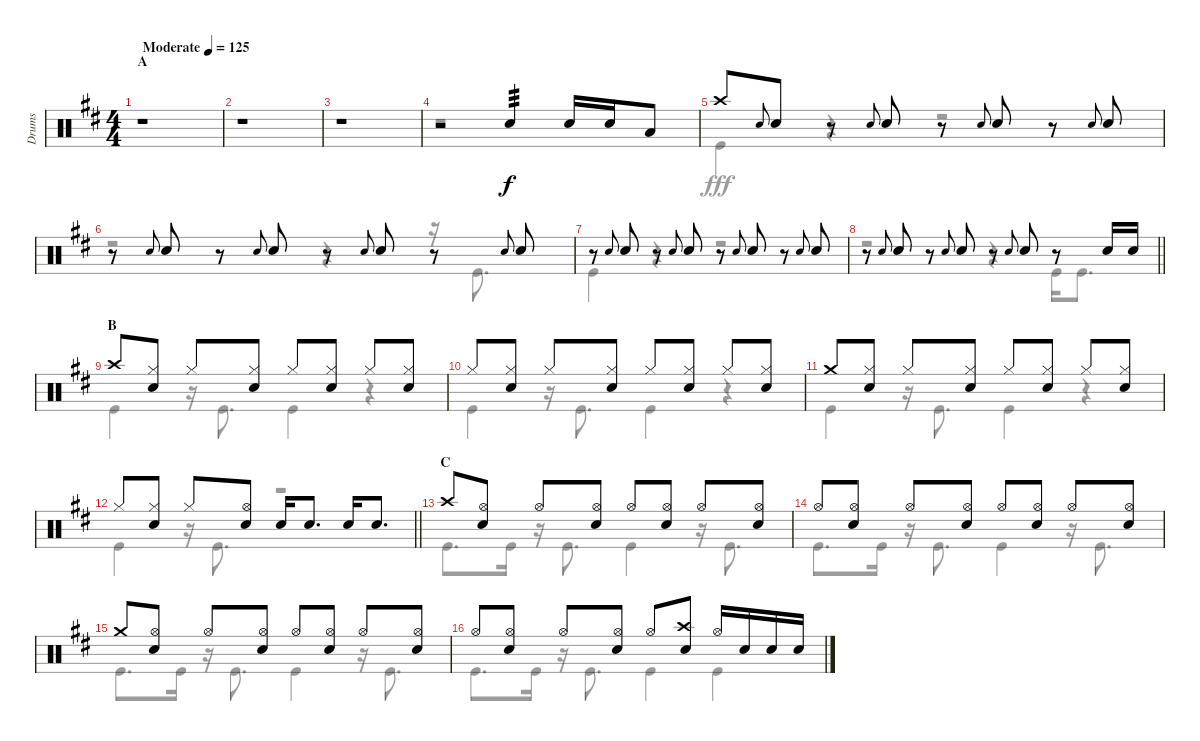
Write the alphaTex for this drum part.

\track ("Drums" "Drums") {instrument percussion}
\staff {score}
\articulation defaults
\voice
\ts (4 4)
\section ("" "A")
\tempo (125 "Moderate")
\clef neutral
\ks d
r.1{dy f} |
r.1 |
r.1 |
r.2 "Snare (hit) 2".4{tp 3} "Snare (hit) 2".16 "Snare (hit) 2".16 "Low Tom (hit)".8 |
"Crash high (hit)".8 "Snare (hit) 2".8{gr onbeat} "Snare (hit) 2".8 r.8 "Snare (hit) 2".8{gr onbeat} "Snare (hit) 2".8 r.8 "Snare (hit) 2".8{gr onbeat} "Snare (hit) 2".8 r.8 "Snare (hit) 2".8{gr onbeat} "Snare (hit) 2".8 |
r.8 "Snare (hit) 2".8{gr onbeat} "Snare (hit) 2".8 r.8 "Snare (hit) 2".8{gr onbeat} "Snare (hit) 2".8 r.8 "Snare (hit) 2".8{gr onbeat} "Snare (hit) 2".8 r.8 "Snare (hit) 2".8{gr onbeat} "Snare (hit) 2".8 |
r.8 "Snare (hit) 2".8{gr onbeat} "Snare (hit) 2".8 r.8 "Snare (hit) 2".8{gr onbeat} "Snare (hit) 2".8 r.8 "Snare (hit) 2".8{gr onbeat} "Snare (hit) 2".8 r.8 "Snare (hit) 2".8{gr onbeat} "Snare (hit) 2".8 |
\barLineRight lightlight
r.8 "Snare (hit) 2".8{gr onbeat} "Snare (hit) 2".8 r.8 "Snare (hit) 2".8{gr onbeat} "Snare (hit) 2".8 r.8 "Snare (hit) 2".8{gr onbeat} "Snare (hit) 2".8 r.8 "Snare (hit) 2".16 "Snare (hit) 2".16 |
\section ("" "B")
"Crash high (hit)".8 ("Hi-Hat (closed)" "Snare (hit) 2").8 "Hi-Hat (closed)".8 ("Hi-Hat (closed)" "Snare (hit) 2").8 "Hi-Hat (closed)".8 ("Hi-Hat (closed)" "Snare (hit) 2").8 "Hi-Hat (closed)".8 ("Hi-Hat (closed)" "Snare (hit) 2").8 |
"Hi-Hat (closed)".8 ("Hi-Hat (closed)" "Snare (hit) 2").8 "Hi-Hat (closed)".8 ("Hi-Hat (closed)" "Snare (hit) 2").8 "Hi-Hat (closed)".8 ("Hi-Hat (closed)" "Snare (hit) 2").8 "Hi-Hat (closed)".8 ("Hi-Hat (closed)" "Snare (hit) 2").8 |
"Crash medium (hit)".8 ("Hi-Hat (closed)" "Snare (hit) 2").8 "Hi-Hat (closed)".8 ("Hi-Hat (closed)" "Snare (hit) 2").8 "Hi-Hat (closed)".8 ("Hi-Hat (closed)" "Snare (hit) 2").8 "Hi-Hat (closed)".8 ("Hi-Hat (closed)" "Snare (hit) 2").8 |
\barLineRight lightlight "Hi-Hat (closed)".8
("Hi-Hat (closed)" "Snare (hit) 2").8 "Hi-Hat (closed)".8 ("Hi-Hat (open)" "Snare (hit) 2").8 "Snare (hit) 2".16 "Snare (hit) 2".8{d} "Snare (hit) 2".16 "Snare (hit) 2".8{d} |
\section ("" "C")
"Crash high (hit)".8 ("Hi-Hat (open)" "Snare (hit) 2").8 "Hi-Hat (open)".8 ("Hi-Hat (open)" "Snare (hit) 2").8 "Hi-Hat (open)".8 ("Hi-Hat (open)" "Snare (hit) 2").8 "Hi-Hat (open)".8 ("Hi-Hat (open)" "Snare (hit) 2").8 |
"Hi-Hat (open)".8 ("Hi-Hat (open)" "Snare (hit) 2").8 "Hi-Hat (open)".8 ("Hi-Hat (open)" "Snare (hit) 2").8 "Hi-Hat (open)".8 ("Hi-Hat (open)" "Snare (hit) 2").8 "Hi-Hat (open)".8 ("Hi-Hat (open)" "Snare (hit) 2").8 |
"Crash medium (hit)".8 ("Hi-Hat (open)" "Snare (hit) 2").8 "Hi-Hat (open)".8 ("Hi-Hat (open)" "Snare (hit) 2").8 "Hi-Hat (open)".8 ("Hi-Hat (open)" "Snare (hit) 2").8 "Hi-Hat (open)".8 ("Hi-Hat (open)" "Snare (hit) 2").8 |
"Hi-Hat (open)".8 ("Hi-Hat (open)" "Snare (hit) 2").8 "Hi-Hat (open)".8 ("Hi-Hat (open)" "Snare (hit) 2").8 "Hi-Hat (open)".8 ("Crash high (hit)" "Snare (hit) 2").8 "Hi-Hat (open)".16 "Snare (hit) 2".16 "Snare (hit) 2".16 "Snare (hit) 2".16
\voice
\clef neutral
\ottava regular
\simile none
\ks d
r.1{dy fff} |
r.1 |
r.1 |
r.1 |
"Kick (hit)".4 r.4 r.2 |
r.2 r.4 r.16 "Kick (hit)".8{d} |
"Kick (hit)".4 r.4 r.2 |
\barLineRight lightlight
r.2 r.4 "Kick (hit)".16 "Kick (hit)".8{d} |
"Kick (hit)".4 r.16 "Kick (hit)".8{d} "Kick (hit)".4 r.4 |
"Kick (hit)".4 r.16 "Kick (hit)".8{d} "Kick (hit)".4 r.4 |
"Kick (hit)".4 r.16 "Kick (hit)".8{d} "Kick (hit)".4 r.4 |
\barLineRight lightlight "Kick (hit)".4
r.16 "Kick (hit)".8{d} r.2 |
"Kick (hit)".8{d} "Kick (hit)".16 r.16 "Kick (hit)".8{d} "Kick (hit)".4 r.16 "Kick (hit)".8{d} |
"Kick (hit)".8{d} "Kick (hit)".16 r.16 "Kick (hit)".8{d} "Kick (hit)".4 r.16 "Kick (hit)".8{d} |
"Kick (hit)".8{d} "Kick (hit)".16 r.16 "Kick (hit)".8{d} "Kick (hit)".4 r.16 "Kick (hit)".8{d} |
"Kick (hit)".8{d} "Kick (hit)".16 r.16 "Kick (hit)".8{d} "Kick (hit)".4 "Kick (hit)".4
